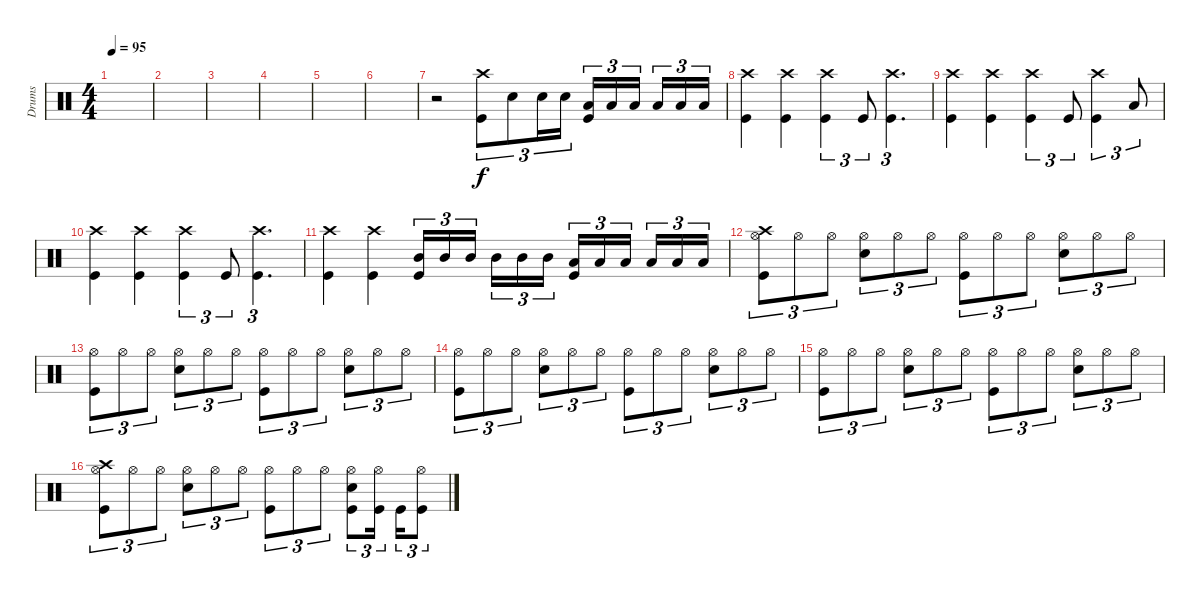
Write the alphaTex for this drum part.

\track ("Drums" "Drums") {instrument percussion}
\staff {score}
\articulation defaults
\ts (4 4)
\tempo 95
\clef neutral
\ks c
|
|
|
|
|
|
r.2 ("Crash high (hit)" "Kick (hit)").8{tu (3 2)} "Electric Snare (hit)".8{tu (3 2)} "Electric Snare (hit)".16{tu (3 2)} "Electric Snare (hit)".16{tu (3 2)} ("Low Tom (hit)" "Kick (hit)").16{tu (3 2)} "Low Tom (hit)".16{tu (3 2)} "Low Tom (hit)".16{tu (3 2)} "Low Tom (hit)".16{tu (3 2)} "Low Floor Tom (hit)".16{tu (3 2)} "Low Floor Tom (hit)".16{tu (3 2)} |
("Crash high (hit)" "Kick (hit)").4 ("Crash high (hit)" "Kick (hit)").4 ("Crash high (hit)" "Kick (hit)").4{tu (3 2)} "Kick (hit)".8{tu (3 2)} ("Crash high (hit)" "Kick (hit)").4{d tu (3 2)} |
("Crash high (hit)" "Kick (hit)").4 ("Crash high (hit)" "Kick (hit)").4 ("Crash high (hit)" "Kick (hit)").4{tu (3 2)} "Kick (hit)".8{tu (3 2)} ("Crash high (hit)" "Kick (hit)").4{tu (3 2)} "Low Floor Tom (hit)".8{tu (3 2)} |
("Crash high (hit)" "Kick (hit)").4 ("Crash high (hit)" "Kick (hit)").4 ("Crash high (hit)" "Kick (hit)").4{tu (3 2)} "Kick (hit)".8{tu (3 2)} ("Crash high (hit)" "Kick (hit)").4{d tu (3 2)} |
("Crash high (hit)" "Kick (hit)").4 ("Crash high (hit)" "Kick (hit)").4 ("Mid Tom (hit)" "Kick (hit)").16{tu (3 2)} "Mid Tom (hit)".16{tu (3 2)} "Mid Tom (hit)".16{tu (3 2)} "Mid Tom (hit)".16{tu (3 2)} "Mid Tom (hit)".16{tu (3 2)} "Mid Tom (hit)".16{tu (3 2)} ("Low Tom (hit)" "Kick (hit)").16{tu (3 2)} "Low Tom (hit)".16{tu (3 2)} "Low Tom (hit)".16{tu (3 2)} "Low Tom (hit)".16{tu (3 2)} "Low Tom (hit)".16{tu (3 2)} "Low Tom (hit)".16{tu (3 2)} |
("Crash high (hit)" "Hi-Hat (open)" "Kick (hit)").8{tu (3 2)} "Hi-Hat (open)".8{tu (3 2)} "Hi-Hat (open)".8{tu (3 2)} ("Hi-Hat (open)" "Electric Snare (hit)").8{tu (3 2)} "Hi-Hat (open)".8{tu (3 2)} "Hi-Hat (open)".8{tu (3 2)} ("Hi-Hat (open)" "Kick (hit)").8{tu (3 2)} "Hi-Hat (open)".8{tu (3 2)} "Hi-Hat (open)".8{tu (3 2)} ("Hi-Hat (open)" "Electric Snare (hit)").8{tu (3 2)} "Hi-Hat (open)".8{tu (3 2)} "Hi-Hat (open)".8{tu (3 2)} |
("Hi-Hat (open)" "Kick (hit)").8{tu (3 2)} "Hi-Hat (open)".8{tu (3 2)} "Hi-Hat (open)".8{tu (3 2)} ("Hi-Hat (open)" "Electric Snare (hit)").8{tu (3 2)} "Hi-Hat (open)".8{tu (3 2)} "Hi-Hat (open)".8{tu (3 2)} ("Hi-Hat (open)" "Kick (hit)").8{tu (3 2)} "Hi-Hat (open)".8{tu (3 2)} "Hi-Hat (open)".8{tu (3 2)} ("Hi-Hat (open)" "Electric Snare (hit)").8{tu (3 2)} "Hi-Hat (open)".8{tu (3 2)} "Hi-Hat (open)".8{tu (3 2)} |
("Hi-Hat (open)" "Kick (hit)").8{tu (3 2)} "Hi-Hat (open)".8{tu (3 2)} "Hi-Hat (open)".8{tu (3 2)} ("Hi-Hat (open)" "Electric Snare (hit)").8{tu (3 2)} "Hi-Hat (open)".8{tu (3 2)} "Hi-Hat (open)".8{tu (3 2)} ("Hi-Hat (open)" "Kick (hit)").8{tu (3 2)} "Hi-Hat (open)".8{tu (3 2)} "Hi-Hat (open)".8{tu (3 2)} ("Hi-Hat (open)" "Electric Snare (hit)").8{tu (3 2)} "Hi-Hat (open)".8{tu (3 2)} "Hi-Hat (open)".8{tu (3 2)} |
("Hi-Hat (open)" "Kick (hit)").8{tu (3 2)} "Hi-Hat (open)".8{tu (3 2)} "Hi-Hat (open)".8{tu (3 2)} ("Hi-Hat (open)" "Electric Snare (hit)").8{tu (3 2)} "Hi-Hat (open)".8{tu (3 2)} "Hi-Hat (open)".8{tu (3 2)} ("Hi-Hat (open)" "Kick (hit)").8{tu (3 2)} "Hi-Hat (open)".8{tu (3 2)} "Hi-Hat (open)".8{tu (3 2)} ("Hi-Hat (open)" "Electric Snare (hit)").8{tu (3 2)} "Hi-Hat (open)".8{tu (3 2)} "Hi-Hat (open)".8{tu (3 2)} |
("Crash high (hit)" "Hi-Hat (open)" "Kick (hit)").8{tu (3 2)} "Hi-Hat (open)".8{tu (3 2)} "Hi-Hat (open)".8{tu (3 2)} ("Hi-Hat (open)" "Electric Snare (hit)").8{tu (3 2)} "Hi-Hat (open)".8{tu (3 2)} "Hi-Hat (open)".8{tu (3 2)} ("Hi-Hat (open)" "Kick (hit)").8{tu (3 2)} "Hi-Hat (open)".8{tu (3 2)} "Hi-Hat (open)".8{tu (3 2)} ("Hi-Hat (open)" "Electric Snare (hit)" "Kick (hit)").8{tu (3 2)} ("Hi-Hat (open)" "Kick (hit)").16{tu (3 2)} "Kick (hit)".16{tu (3 2)} ("Hi-Hat (open)" "Kick (hit)").8{tu (3 2)}
